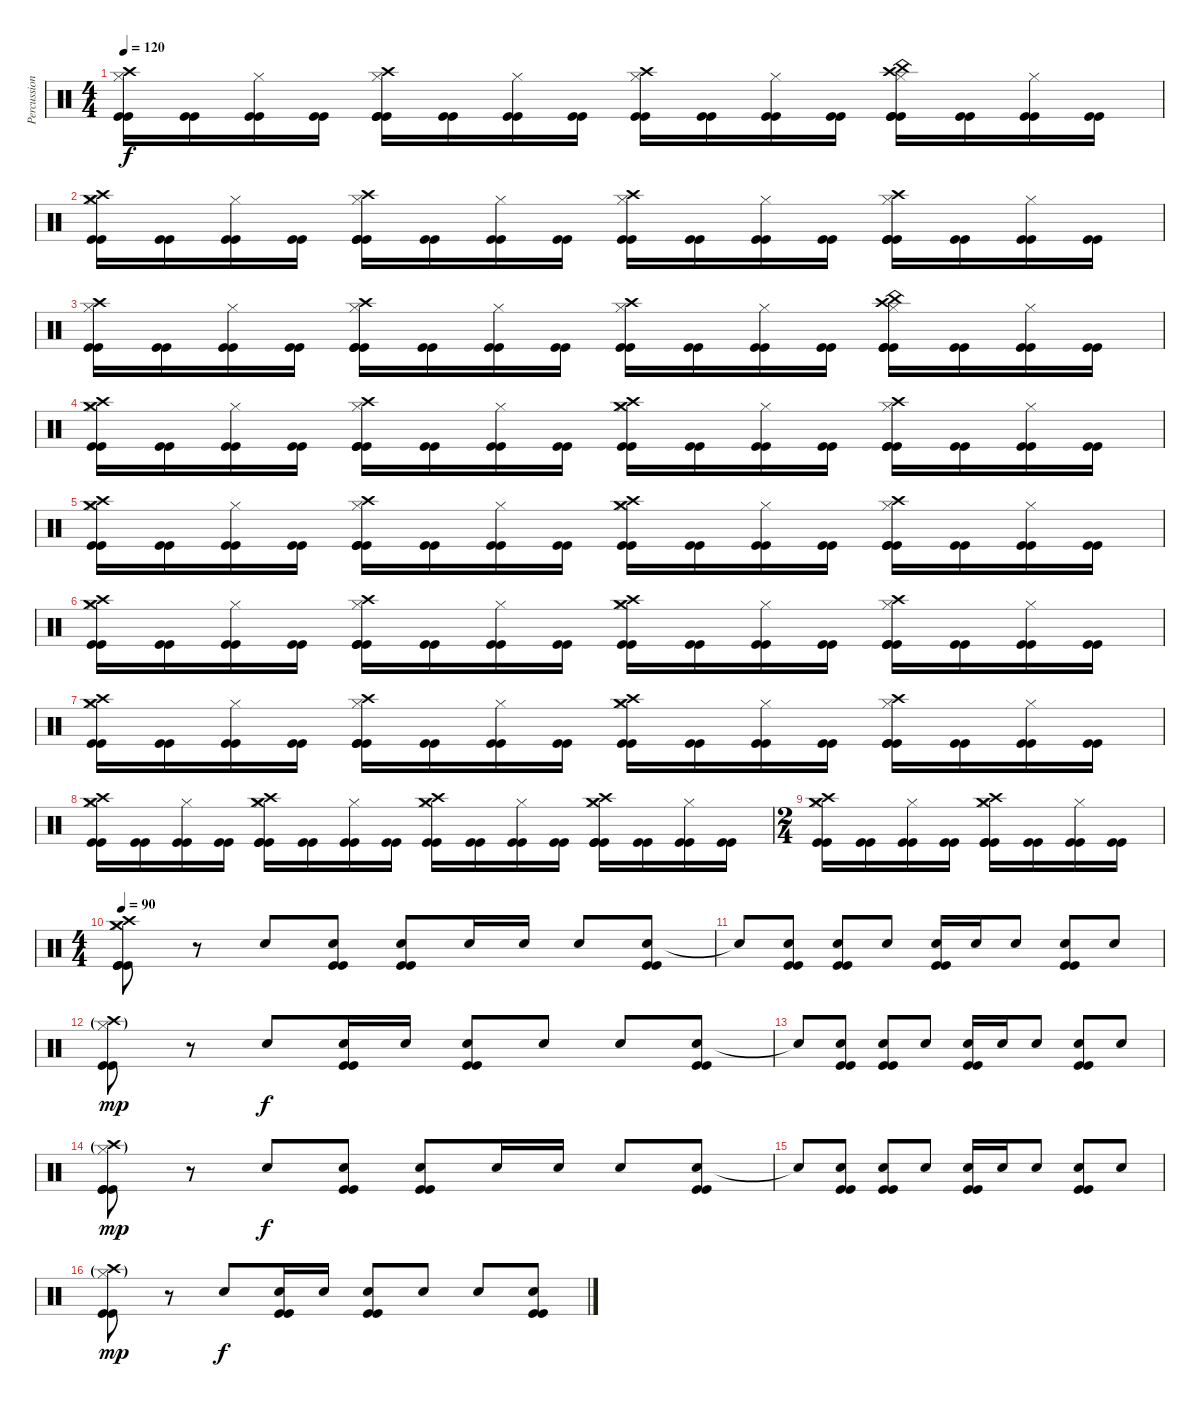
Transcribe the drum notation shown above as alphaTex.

\track ("Percussion" "Percussion") {instrument percussion}
\staff {score}
\articulation defaults
\ts (4 4)
\tempo 120
\clef neutral
\ks c
("Hi-Hat (closed)" "Crash high (hit)" "Kick (hit)" "Kick (hit)").16{dy f} ("Kick (hit)" "Kick (hit)").16 ("Hi-Hat (closed)" "Kick (hit)" "Kick (hit)").16 ("Kick (hit)" "Kick (hit)").16 ("Hi-Hat (closed)" "Crash high (hit)" "Kick (hit)" "Kick (hit)" "Kick (hit)").16 ("Kick (hit)" "Kick (hit)").16 ("Hi-Hat (closed)" "Kick (hit)" "Kick (hit)").16 ("Kick (hit)" "Kick (hit)").16 ("Hi-Hat (closed)" "Crash high (hit)" "Kick (hit)" "Kick (hit)").16 ("Kick (hit)" "Kick (hit)").16 ("Hi-Hat (closed)" "Kick (hit)" "Kick (hit)").16 ("Kick (hit)" "Kick (hit)").16 ("Hi-Hat (closed)" "Crash high (hit)" "China (hit)" "Kick (hit)" "Kick (hit)" "Kick (hit)").16 ("Kick (hit)" "Kick (hit)").16 ("Hi-Hat (closed)" "Kick (hit)" "Kick (hit)").16 ("Kick (hit)" "Kick (hit)").16 |
("Hi-Hat (closed)" "Crash high (hit)" "Crash medium (hit)" "Kick (hit)" "Kick (hit)").16 ("Kick (hit)" "Kick (hit)").16 ("Hi-Hat (closed)" "Kick (hit)" "Kick (hit)").16 ("Kick (hit)" "Kick (hit)").16 ("Hi-Hat (closed)" "Crash high (hit)" "Kick (hit)" "Kick (hit)" "Kick (hit)").16 ("Kick (hit)" "Kick (hit)").16 ("Hi-Hat (closed)" "Kick (hit)" "Kick (hit)").16 ("Kick (hit)" "Kick (hit)").16 ("Hi-Hat (closed)" "Crash high (hit)" "Kick (hit)" "Kick (hit)").16 ("Kick (hit)" "Kick (hit)").16 ("Hi-Hat (closed)" "Kick (hit)" "Kick (hit)").16 ("Kick (hit)" "Kick (hit)").16 ("Hi-Hat (closed)" "Crash high (hit)" "Kick (hit)" "Kick (hit)" "Kick (hit)").16 ("Kick (hit)" "Kick (hit)").16 ("Hi-Hat (closed)" "Kick (hit)" "Kick (hit)").16 ("Kick (hit)" "Kick (hit)").16 |
("Hi-Hat (closed)" "Crash high (hit)" "Kick (hit)" "Kick (hit)").16 ("Kick (hit)" "Kick (hit)").16 ("Hi-Hat (closed)" "Kick (hit)" "Kick (hit)").16 ("Kick (hit)" "Kick (hit)").16 ("Hi-Hat (closed)" "Crash high (hit)" "Kick (hit)" "Kick (hit)" "Kick (hit)").16 ("Kick (hit)" "Kick (hit)").16 ("Hi-Hat (closed)" "Kick (hit)" "Kick (hit)").16 ("Kick (hit)" "Kick (hit)").16 ("Hi-Hat (closed)" "Crash high (hit)" "Kick (hit)" "Kick (hit)").16 ("Kick (hit)" "Kick (hit)").16 ("Hi-Hat (closed)" "Kick (hit)" "Kick (hit)").16 ("Kick (hit)" "Kick (hit)").16 ("Hi-Hat (closed)" "Crash high (hit)" "China (hit)" "Kick (hit)" "Kick (hit)" "Kick (hit)").16 ("Kick (hit)" "Kick (hit)").16 ("Hi-Hat (closed)" "Kick (hit)" "Kick (hit)").16 ("Kick (hit)" "Kick (hit)").16 |
("Hi-Hat (closed)" "Crash high (hit)" "Crash medium (hit)" "Kick (hit)" "Kick (hit)").16 ("Kick (hit)" "Kick (hit)").16 ("Hi-Hat (closed)" "Kick (hit)" "Kick (hit)").16 ("Kick (hit)" "Kick (hit)").16 ("Hi-Hat (closed)" "Crash high (hit)" "Kick (hit)" "Kick (hit)" "Kick (hit)").16 ("Kick (hit)" "Kick (hit)").16 ("Hi-Hat (closed)" "Kick (hit)" "Kick (hit)").16 ("Kick (hit)" "Kick (hit)").16 ("Hi-Hat (closed)" "Crash high (hit)" "Crash medium (hit)" "Kick (hit)" "Kick (hit)").16 ("Kick (hit)" "Kick (hit)").16 ("Hi-Hat (closed)" "Kick (hit)" "Kick (hit)").16 ("Kick (hit)" "Kick (hit)").16 ("Hi-Hat (closed)" "Crash high (hit)" "Kick (hit)" "Kick (hit)" "Kick (hit)").16 ("Kick (hit)" "Kick (hit)").16 ("Hi-Hat (closed)" "Kick (hit)" "Kick (hit)").16 ("Kick (hit)" "Kick (hit)").16 |
("Hi-Hat (closed)" "Crash high (hit)" "Crash medium (hit)" "Kick (hit)" "Kick (hit)").16 ("Kick (hit)" "Kick (hit)").16 ("Hi-Hat (closed)" "Kick (hit)" "Kick (hit)").16 ("Kick (hit)" "Kick (hit)").16 ("Hi-Hat (closed)" "Crash high (hit)" "Kick (hit)" "Kick (hit)" "Kick (hit)").16 ("Kick (hit)" "Kick (hit)").16 ("Hi-Hat (closed)" "Kick (hit)" "Kick (hit)").16 ("Kick (hit)" "Kick (hit)").16 ("Hi-Hat (closed)" "Crash high (hit)" "Crash medium (hit)" "Kick (hit)" "Kick (hit)").16 ("Kick (hit)" "Kick (hit)").16 ("Hi-Hat (closed)" "Kick (hit)" "Kick (hit)").16 ("Kick (hit)" "Kick (hit)").16 ("Hi-Hat (closed)" "Crash high (hit)" "Kick (hit)" "Kick (hit)" "Kick (hit)").16 ("Kick (hit)" "Kick (hit)").16 ("Hi-Hat (closed)" "Kick (hit)" "Kick (hit)").16 ("Kick (hit)" "Kick (hit)").16 |
("Hi-Hat (closed)" "Crash high (hit)" "Crash medium (hit)" "Kick (hit)" "Kick (hit)").16 ("Kick (hit)" "Kick (hit)").16 ("Hi-Hat (closed)" "Kick (hit)" "Kick (hit)").16 ("Kick (hit)" "Kick (hit)").16 ("Hi-Hat (closed)" "Crash high (hit)" "Kick (hit)" "Kick (hit)" "Kick (hit)").16 ("Kick (hit)" "Kick (hit)").16 ("Hi-Hat (closed)" "Kick (hit)" "Kick (hit)").16 ("Kick (hit)" "Kick (hit)").16 ("Hi-Hat (closed)" "Crash high (hit)" "Crash medium (hit)" "Kick (hit)" "Kick (hit)").16 ("Kick (hit)" "Kick (hit)").16 ("Hi-Hat (closed)" "Kick (hit)" "Kick (hit)").16 ("Kick (hit)" "Kick (hit)").16 ("Hi-Hat (closed)" "Crash high (hit)" "Kick (hit)" "Kick (hit)" "Kick (hit)").16 ("Kick (hit)" "Kick (hit)").16 ("Hi-Hat (closed)" "Kick (hit)" "Kick (hit)").16 ("Kick (hit)" "Kick (hit)").16 |
("Hi-Hat (closed)" "Crash high (hit)" "Crash medium (hit)" "Kick (hit)" "Kick (hit)").16 ("Kick (hit)" "Kick (hit)").16 ("Hi-Hat (closed)" "Kick (hit)" "Kick (hit)").16 ("Kick (hit)" "Kick (hit)").16 ("Hi-Hat (closed)" "Crash high (hit)" "Kick (hit)" "Kick (hit)" "Kick (hit)").16 ("Kick (hit)" "Kick (hit)").16 ("Hi-Hat (closed)" "Kick (hit)" "Kick (hit)").16 ("Kick (hit)" "Kick (hit)").16 ("Hi-Hat (closed)" "Crash high (hit)" "Crash medium (hit)" "Kick (hit)" "Kick (hit)").16 ("Kick (hit)" "Kick (hit)").16 ("Hi-Hat (closed)" "Kick (hit)" "Kick (hit)").16 ("Kick (hit)" "Kick (hit)").16 ("Hi-Hat (closed)" "Crash high (hit)" "Kick (hit)" "Kick (hit)" "Kick (hit)").16 ("Kick (hit)" "Kick (hit)").16 ("Hi-Hat (closed)" "Kick (hit)" "Kick (hit)").16 ("Kick (hit)" "Kick (hit)").16 |
("Hi-Hat (closed)" "Crash high (hit)" "Crash medium (hit)" "Kick (hit)" "Kick (hit)").16 ("Kick (hit)" "Kick (hit)").16 ("Hi-Hat (closed)" "Kick (hit)" "Kick (hit)").16 ("Kick (hit)" "Kick (hit)").16 ("Hi-Hat (closed)" "Crash high (hit)" "Crash medium (hit)" "Kick (hit)" "Kick (hit)" "Kick (hit)").16 ("Kick (hit)" "Kick (hit)").16 ("Hi-Hat (closed)" "Kick (hit)" "Kick (hit)").16 ("Kick (hit)" "Kick (hit)").16 ("Hi-Hat (closed)" "Crash high (hit)" "Crash medium (hit)" "Kick (hit)" "Kick (hit)").16 ("Kick (hit)" "Kick (hit)").16 ("Hi-Hat (closed)" "Kick (hit)" "Kick (hit)").16 ("Kick (hit)" "Kick (hit)").16 ("Hi-Hat (closed)" "Crash high (hit)" "Crash medium (hit)" "Kick (hit)" "Kick (hit)" "Kick (hit)").16 ("Kick (hit)" "Kick (hit)").16 ("Hi-Hat (closed)" "Kick (hit)" "Kick (hit)").16 ("Kick (hit)" "Kick (hit)").16 |
\ts (2 4)
("Hi-Hat (closed)" "Crash high (hit)" "Crash medium (hit)" "Kick (hit)" "Kick (hit)").16 ("Kick (hit)" "Kick (hit)").16 ("Hi-Hat (closed)" "Kick (hit)" "Kick (hit)").16 ("Kick (hit)" "Kick (hit)").16 ("Hi-Hat (closed)" "Crash high (hit)" "Crash medium (hit)" "Kick (hit)" "Kick (hit)" "Kick (hit)").16 ("Kick (hit)" "Kick (hit)").16 ("Hi-Hat (closed)" "Kick (hit)" "Kick (hit)").16 ("Kick (hit)" "Kick (hit)").16 |
\ts (4 4)
\tempo 90
("Hi-Hat (closed)" "Crash high (hit)" "Crash medium (hit)" "Kick (hit)" "Kick (hit)" "Kick (hit)").8 r.8 "Snare (hit) 2".8{volume 14} ("Snare (hit) 2" "Kick (hit)" "Kick (hit)").8 ("Snare (hit) 2" "Kick (hit)" "Kick (hit)").8 "Snare (hit) 2".16 "Snare (hit) 2".16 "Snare (hit) 2".8 ("Electric Snare (hit)" "Kick (hit)" "Kick (hit)").8 |
"Electric Snare (hit)"{t}.8 ("Electric Snare (hit)" "Kick (hit)" "Kick (hit)").8 ("Electric Snare (hit)" "Kick (hit)" "Kick (hit)").8 "Electric Snare (hit)".8 ("Electric Snare (hit)" "Kick (hit)" "Kick (hit)").16 "Electric Snare (hit)".16 "Electric Snare (hit)".8 ("Electric Snare (hit)" "Kick (hit)" "Kick (hit)").8 "Electric Snare (hit)".8 |
("Hi-Hat (closed)"{g} "Crash high (hit)"{g} "Kick (hit)" "Kick (hit)").8{dy mp} r.8 "Snare (hit) 2".8{dy f} ("Snare (hit) 2" "Kick (hit)" "Kick (hit)").16 "Snare (hit) 2".16 ("Snare (hit) 2" "Kick (hit)" "Kick (hit)").8 "Electric Snare (hit)".8 "Electric Snare (hit)".8 ("Electric Snare (hit)" "Kick (hit)" "Kick (hit)").8 |
"Electric Snare (hit)"{t}.8 ("Electric Snare (hit)" "Kick (hit)" "Kick (hit)").8 ("Electric Snare (hit)" "Kick (hit)" "Kick (hit)").8 "Electric Snare (hit)".8 ("Electric Snare (hit)" "Kick (hit)" "Kick (hit)").16 "Electric Snare (hit)".16 "Electric Snare (hit)".8 ("Electric Snare (hit)" "Kick (hit)" "Kick (hit)").8 "Electric Snare (hit)".8 |
("Hi-Hat (closed)"{g} "Crash high (hit)"{g} "Kick (hit)" "Kick (hit)" "Kick (hit)").8{dy mp} r.8 "Snare (hit) 2".8{dy f} ("Snare (hit) 2" "Kick (hit)" "Kick (hit)").8 ("Snare (hit) 2" "Kick (hit)" "Kick (hit)").8 "Snare (hit) 2".16 "Snare (hit) 2".16 "Snare (hit) 2".8 ("Electric Snare (hit)" "Kick (hit)" "Kick (hit)").8 |
"Electric Snare (hit)"{t}.8 ("Electric Snare (hit)" "Kick (hit)" "Kick (hit)").8 ("Electric Snare (hit)" "Kick (hit)" "Kick (hit)").8 "Electric Snare (hit)".8 ("Electric Snare (hit)" "Kick (hit)" "Kick (hit)").16 "Electric Snare (hit)".16 "Electric Snare (hit)".8 ("Electric Snare (hit)" "Kick (hit)" "Kick (hit)").8 "Electric Snare (hit)".8 |
("Hi-Hat (closed)"{g} "Crash high (hit)"{g} "Kick (hit)" "Kick (hit)").8{dy mp} r.8 "Snare (hit) 2".8{dy f} ("Snare (hit) 2" "Kick (hit)" "Kick (hit)").16 "Snare (hit) 2".16 ("Snare (hit) 2" "Kick (hit)" "Kick (hit)").8 "Electric Snare (hit)".8 "Electric Snare (hit)".8 ("Electric Snare (hit)" "Kick (hit)" "Kick (hit)").8
